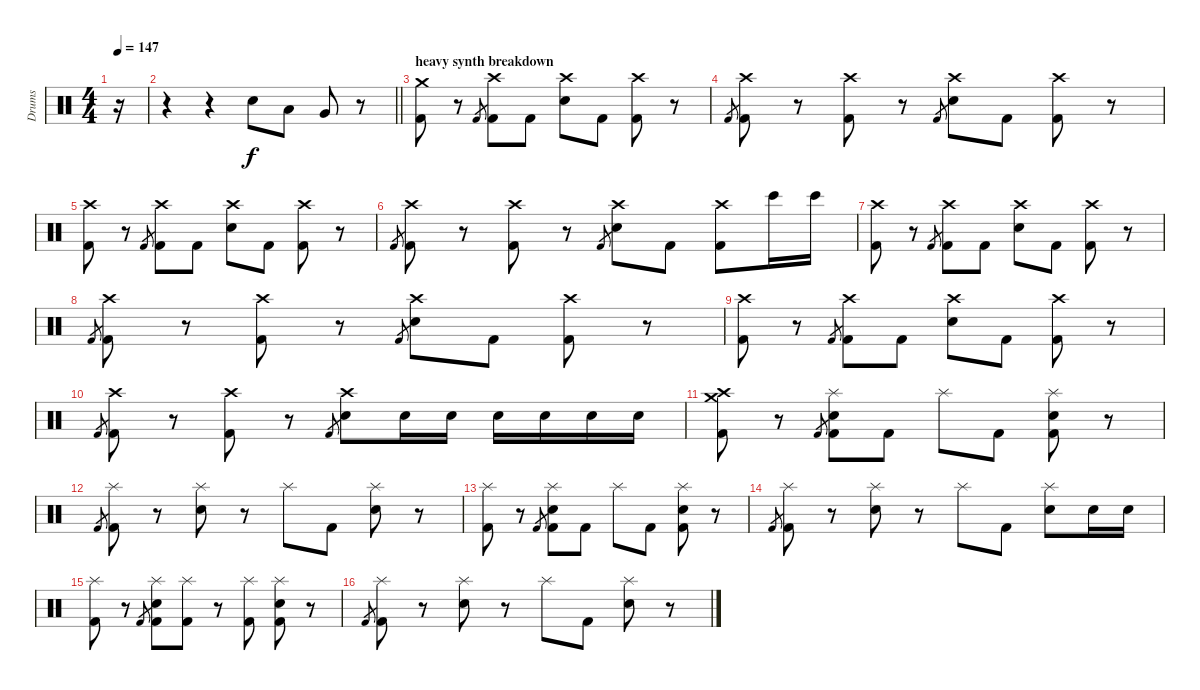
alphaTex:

\track ("Drums" "Drums") {instrument percussion}
\staff {score}
\articulation defaults
\ts (4 4)
\tempo 147
\clef neutral
\ks c
r.16{dy f} |
\barLineRight lightlight
r.4 r.4 "Electric Snare (hit)".8 "Low Tom (hit)".8 "Very Low Tom (hit)".8 r.8 |
\section ("" "heavy synth breakdown")
("Crash medium (hit)" "Kick (hit) 2").8 r.8 "Kick (hit) 2".8{gr} ("Crash high (hit)" "Kick (hit) 2").8 "Kick (hit) 2".8 ("Crash high (hit)" "Electric Snare (hit)").8 "Kick (hit) 2".8 ("Crash high (hit)" "Kick (hit) 2").8 r.8 |
"Kick (hit) 2".8{gr} ("Crash high (hit)" "Kick (hit) 2").8 r.8 ("Crash high (hit)" "Kick (hit) 2").8 r.8 "Kick (hit) 2".8{gr} ("Crash high (hit)" "Electric Snare (hit)").8 "Kick (hit) 2".8 ("Crash high (hit)" "Kick (hit) 2").8 r.8 |
("Crash high (hit)" "Kick (hit) 2").8 r.8 "Kick (hit) 2".8{gr} ("Crash high (hit)" "Kick (hit) 2").8 "Kick (hit) 2".8 ("Crash high (hit)" "Electric Snare (hit)").8 "Kick (hit) 2".8 ("Crash high (hit)" "Kick (hit) 2").8 r.8 |
"Kick (hit) 2".8{gr} ("Crash high (hit)" "Kick (hit) 2").8 r.8 ("Crash high (hit)" "Kick (hit) 2").8 r.8 "Kick (hit) 2".8{gr} ("Crash high (hit)" "Electric Snare (hit)").8 "Kick (hit) 2".8 ("Crash high (hit)" "Kick (hit) 2").8 "Bongo High (hit)".16 "Bongo High (hit)".16 |
("Crash high (hit)" "Kick (hit) 2").8 r.8 "Kick (hit) 2".8{gr} ("Crash high (hit)" "Kick (hit) 2").8 "Kick (hit) 2".8 ("Crash high (hit)" "Electric Snare (hit)").8 "Kick (hit) 2".8 ("Crash high (hit)" "Kick (hit) 2").8 r.8 |
"Kick (hit) 2".8{gr} ("Crash high (hit)" "Kick (hit) 2").8 r.8 ("Crash high (hit)" "Kick (hit) 2").8 r.8 "Kick (hit) 2".8{gr} ("Crash high (hit)" "Electric Snare (hit)").8 "Kick (hit) 2".8 ("Crash high (hit)" "Kick (hit) 2").8 r.8 |
("Crash high (hit)" "Kick (hit) 2").8 r.8 "Kick (hit) 2".8{gr} ("Crash high (hit)" "Kick (hit) 2").8 "Kick (hit) 2".8 ("Crash high (hit)" "Electric Snare (hit)").8 "Kick (hit) 2".8 ("Crash high (hit)" "Kick (hit) 2").8 r.8 |
"Kick (hit) 2".8{gr} ("Crash high (hit)" "Kick (hit) 2").8 r.8 ("Crash high (hit)" "Kick (hit) 2").8 r.8 "Kick (hit) 2".8{gr} ("Crash high (hit)" "Electric Snare (hit)").8 "Electric Snare (hit)".16 "Electric Snare (hit)".16 "Electric Snare (hit)".16 "Electric Snare (hit)".16 "Electric Snare (hit)".16 "Electric Snare (hit)".16 |
("Crash high (hit)" "Crash medium (hit)" "Kick (hit) 2").8 r.8 "Kick (hit) 2".8{gr} ("Splash (hit)" "Electric Snare (hit)" "Kick (hit) 2").8 "Kick (hit) 2".8 "Splash (hit)".8 "Kick (hit) 2".8 ("Splash (hit)" "Electric Snare (hit)" "Kick (hit) 2").8 r.8 |
"Kick (hit) 2".8{gr} ("Splash (hit)" "Kick (hit) 2").8 r.8 ("Splash (hit)" "Electric Snare (hit)").8 r.8 "Splash (hit)".8 "Kick (hit) 2".8 ("Splash (hit)" "Electric Snare (hit)").8 r.8 |
("Splash (hit)" "Kick (hit) 2").8 r.8 "Kick (hit) 2".8{gr} ("Splash (hit)" "Electric Snare (hit)" "Kick (hit) 2").8 "Kick (hit) 2".8 "Splash (hit)".8 "Kick (hit) 2".8 ("Splash (hit)" "Electric Snare (hit)" "Kick (hit) 2").8 r.8 |
"Kick (hit) 2".8{gr} ("Splash (hit)" "Kick (hit) 2").8 r.8 ("Splash (hit)" "Electric Snare (hit)").8 r.8 "Splash (hit)".8 "Kick (hit) 2".8 ("Splash (hit)" "Electric Snare (hit)").8 "Electric Snare (hit)".16 "Electric Snare (hit)".16 |
("Splash (hit)" "Kick (hit) 2").8 r.8 "Kick (hit) 2".8{gr} ("Splash (hit)" "Electric Snare (hit)" "Kick (hit) 2").8 ("Splash (hit)" "Kick (hit) 2").8 r.8 ("Splash (hit)" "Kick (hit) 2").8 ("Splash (hit)" "Electric Snare (hit)" "Kick (hit) 2").8 r.8 |
"Kick (hit) 2".8{gr} ("Splash (hit)" "Kick (hit) 2").8 r.8 ("Splash (hit)" "Electric Snare (hit)").8 r.8 "Splash (hit)".8 "Kick (hit) 2".8 ("Splash (hit)" "Electric Snare (hit)").8 r.8
